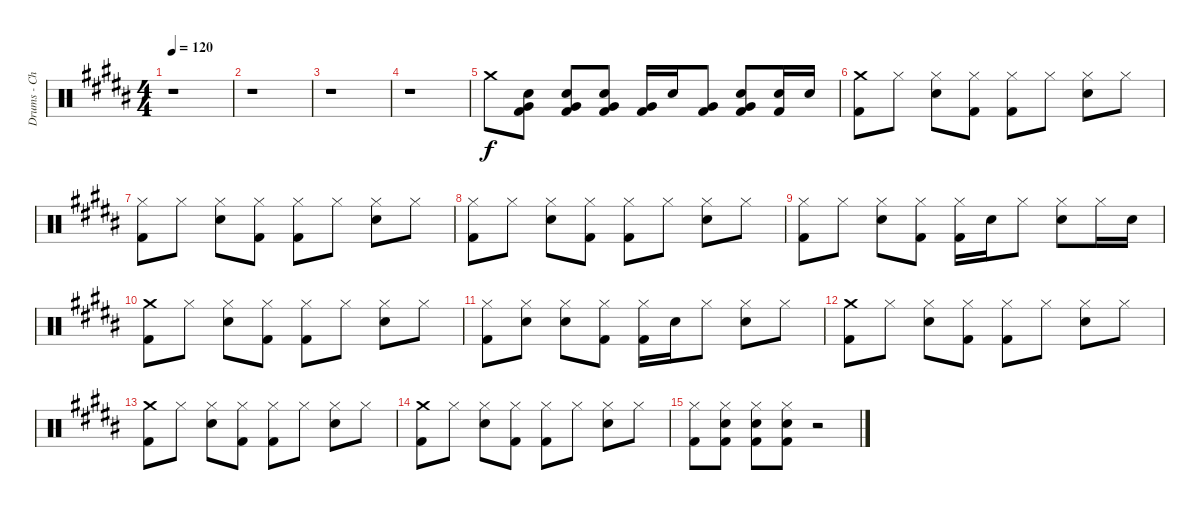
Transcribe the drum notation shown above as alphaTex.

\track ("Drums - Choi Min Hwan" "Drums - Ch") {instrument percussion}
\staff {score}
\articulation defaults
\ts (4 4)
\tempo 120
\clef neutral
\ks g#minor
r.1{dy f} |
r.1 |
r.1 |
r.1 |
"Crash medium (hit)".8 ("Electric Snare (hit)" "Very Low Tom (hit)" "Kick (hit) 2").8 ("Electric Snare (hit)" "Very Low Tom (hit)" "Kick (hit) 2").8 ("Electric Snare (hit)" "Very Low Tom (hit)" "Kick (hit) 2").8 ("Very Low Tom (hit)" "Kick (hit) 2").16 "Electric Snare (hit)".16 ("Very Low Tom (hit)" "Kick (hit) 2").8 ("Electric Snare (hit)" "Very Low Tom (hit)" "Kick (hit) 2").8 ("Electric Snare (hit)" "Kick (hit) 2").16 "Electric Snare (hit)".16 |
("Crash medium (hit)" "Kick (hit) 2").8 "Hi-Hat (closed)".8 ("Hi-Hat (closed)" "Electric Snare (hit)").8 ("Hi-Hat (closed)" "Kick (hit) 2").8 ("Hi-Hat (closed)" "Kick (hit) 2").8 "Hi-Hat (closed)".8 ("Hi-Hat (closed)" "Electric Snare (hit)").8 "Hi-Hat (closed)".8 |
("Hi-Hat (closed)" "Kick (hit) 2").8 "Hi-Hat (closed)".8 ("Hi-Hat (closed)" "Electric Snare (hit)").8 ("Hi-Hat (closed)" "Kick (hit) 2").8 ("Hi-Hat (closed)" "Kick (hit) 2").8 "Hi-Hat (closed)".8 ("Hi-Hat (closed)" "Electric Snare (hit)").8 "Hi-Hat (closed)".8 |
("Hi-Hat (closed)" "Kick (hit) 2").8 "Hi-Hat (closed)".8 ("Hi-Hat (closed)" "Electric Snare (hit)").8 ("Hi-Hat (closed)" "Kick (hit) 2").8 ("Hi-Hat (closed)" "Kick (hit) 2").8 "Hi-Hat (closed)".8 ("Hi-Hat (closed)" "Electric Snare (hit)").8 "Hi-Hat (closed)".8 |
("Hi-Hat (closed)" "Kick (hit) 2").8 "Hi-Hat (closed)".8 ("Hi-Hat (closed)" "Electric Snare (hit)").8 ("Hi-Hat (closed)" "Kick (hit) 2").8 ("Hi-Hat (closed)" "Kick (hit) 2").16 "Electric Snare (hit)".16 "Hi-Hat (closed)".8 ("Hi-Hat (closed)" "Electric Snare (hit)").8 "Hi-Hat (closed)".16 "Electric Snare (hit)".16 |
("Crash medium (hit)" "Kick (hit) 2").8 "Hi-Hat (closed)".8 ("Hi-Hat (closed)" "Electric Snare (hit)").8 ("Hi-Hat (closed)" "Kick (hit) 2").8 ("Hi-Hat (closed)" "Kick (hit) 2").8 "Hi-Hat (closed)".8 ("Hi-Hat (closed)" "Electric Snare (hit)").8 "Hi-Hat (closed)".8 |
("Hi-Hat (closed)" "Kick (hit) 2").8 ("Hi-Hat (closed)" "Electric Snare (hit)").8 ("Hi-Hat (closed)" "Electric Snare (hit)").8 ("Hi-Hat (closed)" "Kick (hit) 2").8 ("Hi-Hat (closed)" "Kick (hit) 2").16 "Electric Snare (hit)".16 "Hi-Hat (closed)".8 ("Hi-Hat (closed)" "Electric Snare (hit)").8 "Hi-Hat (closed)".8 |
("Crash medium (hit)" "Kick (hit) 2").8 "Hi-Hat (closed)".8 ("Hi-Hat (closed)" "Electric Snare (hit)").8 ("Hi-Hat (closed)" "Kick (hit) 2").8 ("Hi-Hat (closed)" "Kick (hit) 2").8 "Hi-Hat (closed)".8 ("Hi-Hat (closed)" "Electric Snare (hit)").8 "Hi-Hat (closed)".8 |
("Crash medium (hit)" "Kick (hit) 2").8 "Hi-Hat (closed)".8 ("Hi-Hat (closed)" "Electric Snare (hit)").8 ("Hi-Hat (closed)" "Kick (hit) 2").8 ("Hi-Hat (closed)" "Kick (hit) 2").8 "Hi-Hat (closed)".8 ("Hi-Hat (closed)" "Electric Snare (hit)").8 "Hi-Hat (closed)".8 |
("Crash medium (hit)" "Kick (hit) 2").8 "Hi-Hat (closed)".8 ("Hi-Hat (closed)" "Electric Snare (hit)").8 ("Hi-Hat (closed)" "Kick (hit) 2").8 ("Hi-Hat (closed)" "Kick (hit) 2").8 "Hi-Hat (closed)".8 ("Hi-Hat (closed)" "Electric Snare (hit)").8 "Hi-Hat (closed)".8 |
("Hi-Hat (closed)" "Kick (hit) 2").8 ("Hi-Hat (closed)" "Electric Snare (hit)" "Kick (hit) 2").8 ("Hi-Hat (closed)" "Electric Snare (hit)" "Kick (hit) 2").8 ("Hi-Hat (closed)" "Electric Snare (hit)" "Kick (hit) 2").8 r.2
